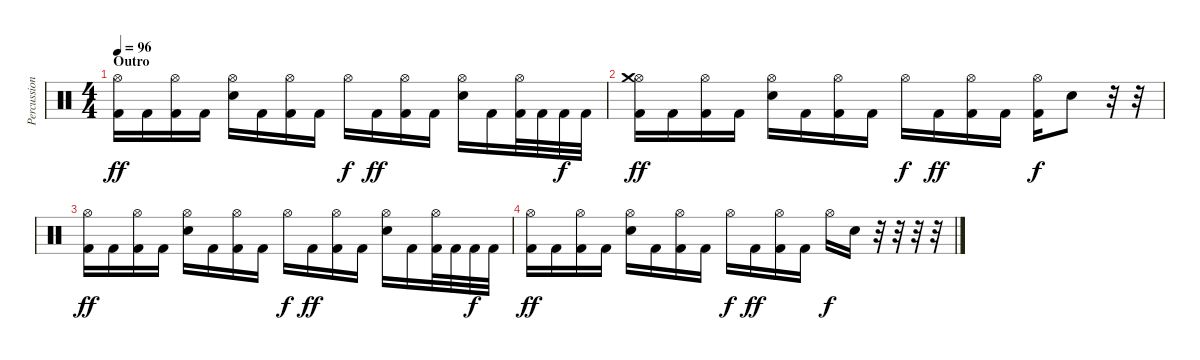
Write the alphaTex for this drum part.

\track ("Percussion" "Percussion") {instrument percussion}
\staff {score}
\articulation defaults
\ts (4 4)
\section ("" "Outro")
\tempo 96
\clef neutral
\ks c
("Hi-Hat (open)" "Kick (hit) 2").16{dy ff} "Kick (hit) 2".16 ("Hi-Hat (open)" "Kick (hit) 2").16 "Kick (hit) 2".16 ("Hi-Hat (open)" "Electric Snare (hit)").16 "Kick (hit) 2".16 ("Hi-Hat (open)" "Kick (hit) 2").16 "Kick (hit) 2".16 "Hi-Hat (open)".16{dy f} "Kick (hit) 2".16{dy ff} ("Hi-Hat (open)" "Kick (hit) 2").16 "Kick (hit) 2".16 ("Hi-Hat (open)" "Electric Snare (hit)").16 "Kick (hit) 2".16 ("Hi-Hat (open)" "Kick (hit) 2").32 "Kick (hit) 2".32 "Kick (hit) 2".32{dy f} "Kick (hit) 2".32 |
("Hi-Hat (open)" "Crash medium (hit)" "Kick (hit) 2").16{dy ff} "Kick (hit) 2".16 ("Hi-Hat (open)" "Kick (hit) 2").16 "Kick (hit) 2".16 ("Hi-Hat (open)" "Electric Snare (hit)").16 "Kick (hit) 2".16 ("Hi-Hat (open)" "Kick (hit) 2").16 "Kick (hit) 2".16 "Hi-Hat (open)".16{dy f} "Kick (hit) 2".16{dy ff} ("Hi-Hat (open)" "Kick (hit) 2").16 "Kick (hit) 2".16 ("Hi-Hat (open)" "Kick (hit) 2").16{dy f} "Electric Snare (hit)".8 r.32 r.32 |
("Hi-Hat (open)" "Kick (hit) 2").16{dy ff} "Kick (hit) 2".16 ("Hi-Hat (open)" "Kick (hit) 2").16 "Kick (hit) 2".16 ("Hi-Hat (open)" "Electric Snare (hit)").16 "Kick (hit) 2".16 ("Hi-Hat (open)" "Kick (hit) 2").16 "Kick (hit) 2".16 "Hi-Hat (open)".16{dy f} "Kick (hit) 2".16{dy ff} ("Hi-Hat (open)" "Kick (hit) 2").16 "Kick (hit) 2".16 ("Hi-Hat (open)" "Electric Snare (hit)").16 "Kick (hit) 2".16 ("Hi-Hat (open)" "Kick (hit) 2").32 "Kick (hit) 2".32 "Kick (hit) 2".32{dy f} "Kick (hit) 2".32 |
("Hi-Hat (open)" "Kick (hit) 2").16{dy ff} "Kick (hit) 2".16 ("Hi-Hat (open)" "Kick (hit) 2").16 "Kick (hit) 2".16 ("Hi-Hat (open)" "Electric Snare (hit)").16 "Kick (hit) 2".16 ("Hi-Hat (open)" "Kick (hit) 2").16 "Kick (hit) 2".16 "Hi-Hat (open)".16{dy f} "Kick (hit) 2".16{dy ff} ("Hi-Hat (open)" "Kick (hit) 2").16 "Kick (hit) 2".16 "Hi-Hat (open)".16{dy f} "Electric Snare (hit)".16 r.32 r.32 r.32 r.32
